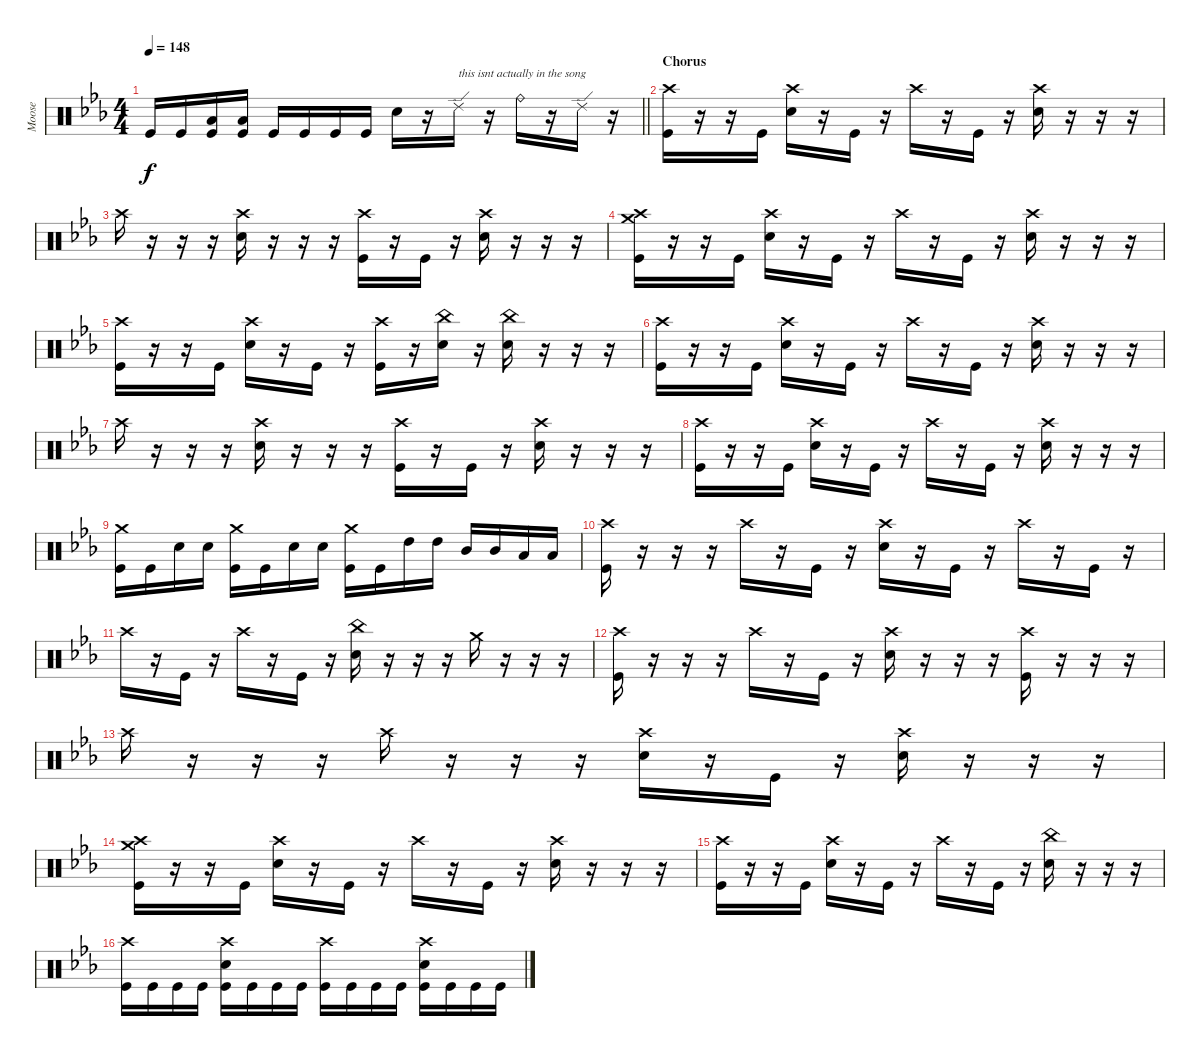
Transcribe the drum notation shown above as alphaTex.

\track ("Moose" "Moose") {instrument percussion}
\staff {score}
\articulation defaults
\ts (4 4)
\tempo 148
\clef neutral
\barLineRight lightlight
\ks eb "Kick (hit)".16{dy f} "Kick (hit)".16
("Low Tom (hit)" "Kick (hit)").16 ("Low Tom (hit)" "Kick (hit)").16 "Kick (hit)".16 "Kick (hit)".16 "Kick (hit)".16 "Kick (hit)".16 "Snare (hit) 2".16 r.16 "Ride (edge) 2".16{txt "this isnt actually in the song"} r.16 "Ride (bell)".16 r.16 "Ride (edge) 2".16 r.16 |
\section ("" "Chorus")
("Crash high (hit)" "Kick (hit)").16 r.16 r.16 "Kick (hit)".16 ("Crash high (hit)" "Snare (hit) 2").16 r.16 "Kick (hit)".16 r.16 "Crash high (hit)".16 r.16 "Kick (hit)".16 r.16 ("Crash high (hit)" "Snare (hit) 2").16 r.16 r.16 r.16 |
"Crash high (hit)".16 r.16 r.16 r.16 ("Crash high (hit)" "Snare (hit) 2").16 r.16 r.16 r.16 ("Crash high (hit)" "Kick (hit)").16 r.16 "Kick (hit)".16 r.16 ("Crash high (hit)" "Snare (hit) 2").16 r.16 r.16 r.16 |
("Crash high (hit)" "Crash medium (hit)" "Kick (hit)").16 r.16 r.16 "Kick (hit)".16 ("Crash high (hit)" "Snare (hit) 2").16 r.16 "Kick (hit)".16 r.16 "Crash high (hit)".16 r.16 "Kick (hit)".16 r.16 ("Crash high (hit)" "Snare (hit) 2").16 r.16 r.16 r.16 |
("Crash high (hit)" "Kick (hit)").16 r.16 r.16 "Kick (hit)".16 ("Crash high (hit)" "Snare (hit) 2").16 r.16 "Kick (hit)".16 r.16 ("Crash high (hit)" "Kick (hit)").16 r.16 ("China (hit)" "Snare (hit) 2").16 r.16 ("China (hit)" "Snare (hit) 2").16 r.16 r.16 r.16 |
("Crash high (hit)" "Kick (hit)").16 r.16 r.16 "Kick (hit)".16 ("Crash high (hit)" "Snare (hit) 2").16 r.16 "Kick (hit)".16 r.16 "Crash high (hit)".16 r.16 "Kick (hit)".16 r.16 ("Crash high (hit)" "Snare (hit) 2").16 r.16 r.16 r.16 |
"Crash high (hit)".16 r.16 r.16 r.16 ("Crash high (hit)" "Snare (hit) 2").16 r.16 r.16 r.16 ("Crash high (hit)" "Kick (hit)").16 r.16 "Kick (hit)".16 r.16 ("Crash high (hit)" "Snare (hit) 2").16 r.16 r.16 r.16 |
("Crash high (hit)" "Kick (hit)").16 r.16 r.16 "Kick (hit)".16 ("Crash high (hit)" "Snare (hit) 2").16 r.16 "Kick (hit)".16 r.16 "Crash high (hit)".16 r.16 "Kick (hit)".16 r.16 ("Crash high (hit)" "Snare (hit) 2").16 r.16 r.16 r.16 |
("Crash medium (hit)" "Kick (hit)").16 "Kick (hit)".16 "Snare (hit) 2".16 "Snare (hit) 2".16 ("Crash medium (hit)" "Kick (hit)").16 "Kick (hit)".16 "Snare (hit) 2".16 "Snare (hit) 2".16 ("Crash medium (hit)" "Kick (hit)").16 "Kick (hit)".16 "High Tom (hit)".16 "High Tom (hit)".16 "Mid Tom (hit)".16 "Mid Tom (hit)".16 "Low Tom (hit)".16 "Low Tom (hit)".16 |
("Crash high (hit)" "Kick (hit)").16 r.16 r.16 r.16 "Crash high (hit)".16 r.16 "Kick (hit)".16 r.16 ("Crash high (hit)" "Snare (hit) 2").16 r.16 "Kick (hit)".16 r.16 "Crash high (hit)".16 r.16 "Kick (hit)".16 r.16 |
"Crash high (hit)".16 r.16 "Kick (hit)".16 r.16 "Crash high (hit)".16 r.16 "Kick (hit)".16 r.16 ("China (hit)" "Snare (hit) 2").16 r.16 r.16 r.16 "Crash medium (hit)".16 r.16 r.16 r.16 |
("Crash high (hit)" "Kick (hit)").16 r.16 r.16 r.16 "Crash high (hit)".16 r.16 "Kick (hit)".16 r.16 ("Crash high (hit)" "Snare (hit) 2").16 r.16 r.16 r.16 ("Crash high (hit)" "Kick (hit)").16 r.16 r.16 r.16 |
"Crash high (hit)".16 r.16 r.16 r.16 "Crash high (hit)".16 r.16 r.16 r.16 ("Crash high (hit)" "Snare (hit) 2").16 r.16 "Kick (hit)".16 r.16 ("Crash high (hit)" "Snare (hit) 2").16 r.16 r.16 r.16 |
("Crash high (hit)" "Crash medium (hit)" "Kick (hit)").16 r.16 r.16 "Kick (hit)".16 ("Crash high (hit)" "Snare (hit) 2").16 r.16 "Kick (hit)".16 r.16 "Crash high (hit)".16 r.16 "Kick (hit)".16 r.16 ("Crash high (hit)" "Snare (hit) 2").16 r.16 r.16 r.16 |
("Crash high (hit)" "Kick (hit)").16 r.16 r.16 "Kick (hit)".16 ("Crash high (hit)" "Snare (hit) 2").16 r.16 "Kick (hit)".16 r.16 "Crash high (hit)".16 r.16 "Kick (hit)".16 r.16 ("China (hit)" "Snare (hit) 2").16 r.16 r.16 r.16 |
("Crash high (hit)" "Kick (hit)").16 "Kick (hit)".16 "Kick (hit)".16 "Kick (hit)".16 ("Crash high (hit)" "Snare (hit) 2" "Kick (hit)").16 "Kick (hit)".16 "Kick (hit)".16 "Kick (hit)".16 ("Crash high (hit)" "Kick (hit)").16 "Kick (hit)".16 "Kick (hit)".16 "Kick (hit)".16 ("Crash high (hit)" "Snare (hit) 2" "Kick (hit)").16 "Kick (hit)".16 "Kick (hit)".16 "Kick (hit)".16
